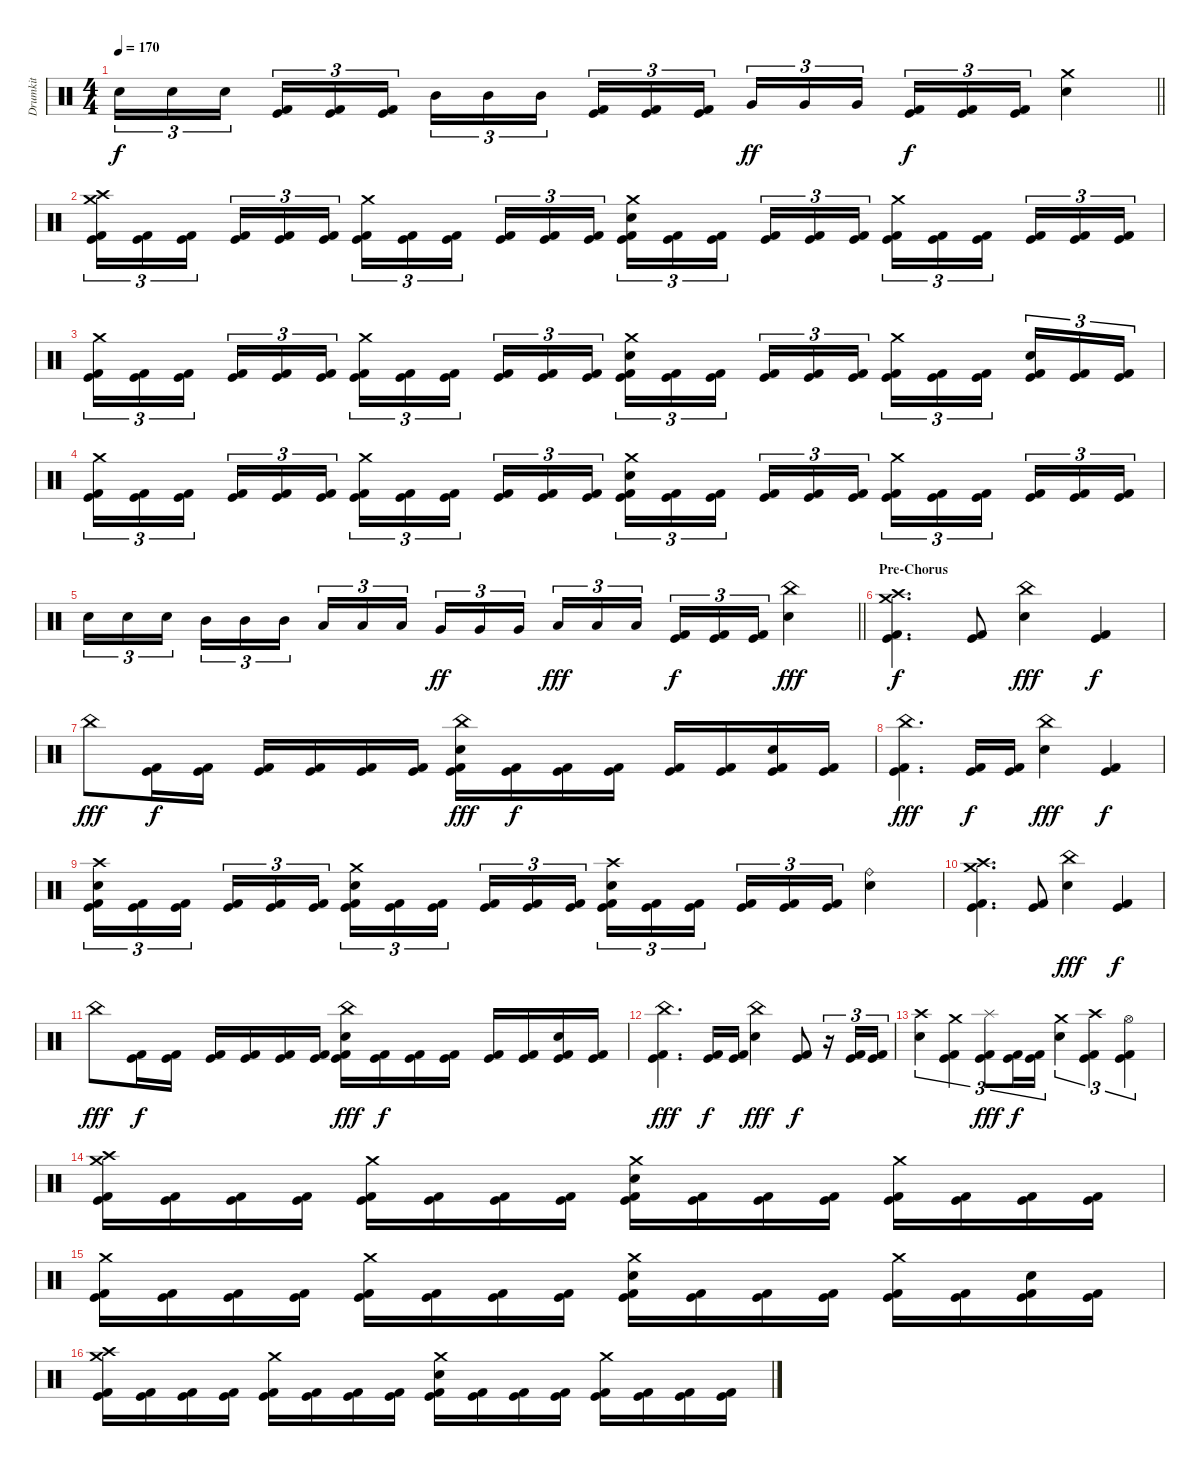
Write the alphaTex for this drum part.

\track ("Drumkit" "Drumkit") {instrument percussion}
\staff {score}
\articulation defaults
\ts (4 4)
\tempo 170
\clef neutral
\barLineRight lightlight
\ks c "Electric Snare (hit)".16{tu (3 2) dy f} "Electric Snare (hit)".16{tu (3 2)} "Electric Snare (hit)".16{tu (3 2) beam splitsecondary}
("Kick (hit)" "Kick (hit) 2").16{tu (3 2)} ("Kick (hit)" "Kick (hit) 2").16{tu (3 2)} ("Kick (hit)" "Kick (hit) 2").16{tu (3 2)} "Mid Tom (hit)".16{tu (3 2)} "Mid Tom (hit)".16{tu (3 2)} "Mid Tom (hit)".16{tu (3 2) beam splitsecondary} ("Kick (hit)" "Kick (hit) 2").16{tu (3 2)} ("Kick (hit)" "Kick (hit) 2").16{tu (3 2)} ("Kick (hit)" "Kick (hit) 2").16{tu (3 2)} "Very Low Tom (hit)".16{tu (3 2) dy ff} "Very Low Tom (hit)".16{tu (3 2)} "Very Low Tom (hit)".16{tu (3 2) beam splitsecondary} ("Kick (hit)" "Kick (hit) 2").16{tu (3 2) dy f} ("Kick (hit)" "Kick (hit) 2").16{tu (3 2)} ("Kick (hit)" "Kick (hit) 2").16{tu (3 2)} ("Crash medium (hit)" "Electric Snare (hit)").4 |
("Crash high (hit)" "Crash medium (hit)" "Kick (hit)" "Kick (hit) 2").16{tu (3 2)} ("Kick (hit)" "Kick (hit) 2").16{tu (3 2)} ("Kick (hit)" "Kick (hit) 2").16{tu (3 2) beam splitsecondary} ("Kick (hit)" "Kick (hit) 2").16{tu (3 2)} ("Kick (hit)" "Kick (hit) 2").16{tu (3 2)} ("Kick (hit)" "Kick (hit) 2").16{tu (3 2)} ("Crash medium (hit)" "Kick (hit)" "Kick (hit) 2").16{tu (3 2)} ("Kick (hit)" "Kick (hit) 2").16{tu (3 2)} ("Kick (hit)" "Kick (hit) 2").16{tu (3 2) beam splitsecondary} ("Kick (hit)" "Kick (hit) 2").16{tu (3 2)} ("Kick (hit)" "Kick (hit) 2").16{tu (3 2)} ("Kick (hit)" "Kick (hit) 2").16{tu (3 2)} ("Crash medium (hit)" "Electric Snare (hit)" "Kick (hit)" "Kick (hit) 2").16{tu (3 2)} ("Kick (hit)" "Kick (hit) 2").16{tu (3 2)} ("Kick (hit)" "Kick (hit) 2").16{tu (3 2) beam splitsecondary} ("Kick (hit)" "Kick (hit) 2").16{tu (3 2)} ("Kick (hit)" "Kick (hit) 2").16{tu (3 2)} ("Kick (hit)" "Kick (hit) 2").16{tu (3 2)} ("Crash medium (hit)" "Kick (hit)" "Kick (hit) 2").16{tu (3 2)} ("Kick (hit)" "Kick (hit) 2").16{tu (3 2)} ("Kick (hit)" "Kick (hit) 2").16{tu (3 2) beam splitsecondary} ("Kick (hit)" "Kick (hit) 2").16{tu (3 2)} ("Kick (hit)" "Kick (hit) 2").16{tu (3 2)} ("Kick (hit)" "Kick (hit) 2").16{tu (3 2)} |
("Crash medium (hit)" "Kick (hit)" "Kick (hit) 2").16{tu (3 2)} ("Kick (hit)" "Kick (hit) 2").16{tu (3 2)} ("Kick (hit)" "Kick (hit) 2").16{tu (3 2) beam splitsecondary} ("Kick (hit)" "Kick (hit) 2").16{tu (3 2)} ("Kick (hit)" "Kick (hit) 2").16{tu (3 2)} ("Kick (hit)" "Kick (hit) 2").16{tu (3 2)} ("Crash medium (hit)" "Kick (hit)" "Kick (hit) 2").16{tu (3 2)} ("Kick (hit)" "Kick (hit) 2").16{tu (3 2)} ("Kick (hit)" "Kick (hit) 2").16{tu (3 2) beam splitsecondary} ("Kick (hit)" "Kick (hit) 2").16{tu (3 2)} ("Kick (hit)" "Kick (hit) 2").16{tu (3 2)} ("Kick (hit)" "Kick (hit) 2").16{tu (3 2)} ("Crash medium (hit)" "Electric Snare (hit)" "Kick (hit)" "Kick (hit) 2").16{tu (3 2)} ("Kick (hit)" "Kick (hit) 2").16{tu (3 2)} ("Kick (hit)" "Kick (hit) 2").16{tu (3 2) beam splitsecondary} ("Kick (hit)" "Kick (hit) 2").16{tu (3 2)} ("Kick (hit)" "Kick (hit) 2").16{tu (3 2)} ("Kick (hit)" "Kick (hit) 2").16{tu (3 2)} ("Crash medium (hit)" "Kick (hit)" "Kick (hit) 2").16{tu (3 2)} ("Kick (hit)" "Kick (hit) 2").16{tu (3 2)} ("Kick (hit)" "Kick (hit) 2").16{tu (3 2) beam splitsecondary} ("Electric Snare (hit)" "Kick (hit)" "Kick (hit) 2").16{tu (3 2)} ("Kick (hit)" "Kick (hit) 2").16{tu (3 2)} ("Kick (hit)" "Kick (hit) 2").16{tu (3 2)} |
("Crash medium (hit)" "Kick (hit)" "Kick (hit) 2").16{tu (3 2)} ("Kick (hit)" "Kick (hit) 2").16{tu (3 2)} ("Kick (hit)" "Kick (hit) 2").16{tu (3 2) beam splitsecondary} ("Kick (hit)" "Kick (hit) 2").16{tu (3 2)} ("Kick (hit)" "Kick (hit) 2").16{tu (3 2)} ("Kick (hit)" "Kick (hit) 2").16{tu (3 2)} ("Crash medium (hit)" "Kick (hit)" "Kick (hit) 2").16{tu (3 2)} ("Kick (hit)" "Kick (hit) 2").16{tu (3 2)} ("Kick (hit)" "Kick (hit) 2").16{tu (3 2) beam splitsecondary} ("Kick (hit)" "Kick (hit) 2").16{tu (3 2)} ("Kick (hit)" "Kick (hit) 2").16{tu (3 2)} ("Kick (hit)" "Kick (hit) 2").16{tu (3 2)} ("Crash medium (hit)" "Electric Snare (hit)" "Kick (hit)" "Kick (hit) 2").16{tu (3 2)} ("Kick (hit)" "Kick (hit) 2").16{tu (3 2)} ("Kick (hit)" "Kick (hit) 2").16{tu (3 2) beam splitsecondary} ("Kick (hit)" "Kick (hit) 2").16{tu (3 2)} ("Kick (hit)" "Kick (hit) 2").16{tu (3 2)} ("Kick (hit)" "Kick (hit) 2").16{tu (3 2)} ("Crash medium (hit)" "Kick (hit)" "Kick (hit) 2").16{tu (3 2)} ("Kick (hit)" "Kick (hit) 2").16{tu (3 2)} ("Kick (hit)" "Kick (hit) 2").16{tu (3 2) beam splitsecondary} ("Kick (hit)" "Kick (hit) 2").16{tu (3 2)} ("Kick (hit)" "Kick (hit) 2").16{tu (3 2)} ("Kick (hit)" "Kick (hit) 2").16{tu (3 2)} |
\barLineRight lightlight "Electric Snare (hit)".16{tu (3 2)} "Electric Snare (hit)".16{tu (3 2)} "Electric Snare (hit)".16{tu (3 2) beam splitsecondary} "Mid Tom (hit)".16{tu (3 2)} "Mid Tom (hit)".16{tu (3 2)} "Mid Tom (hit)".16{tu (3 2)} "Low Tom (hit)".16{tu (3 2)} "Low Tom (hit)".16{tu (3 2)} "Low Tom (hit)".16{tu (3 2) beam splitsecondary} "Very Low Tom (hit)".16{tu (3 2) dy ff} "Very Low Tom (hit)".16{tu (3 2)} "Very Low Tom (hit)".16{tu (3 2)} "Low Floor Tom (hit)".16{tu (3 2) dy fff} "Low Floor Tom (hit)".16{tu (3 2)} "Low Floor Tom (hit)".16{tu (3 2) beam splitsecondary}
("Kick (hit)" "Kick (hit) 2").16{tu (3 2) dy f} ("Kick (hit)" "Kick (hit) 2").16{tu (3 2)} ("Kick (hit)" "Kick (hit) 2").16{tu (3 2)} ("China (hit)" "Electric Snare (hit)").4{dy fff} |
\section ("" "Pre-Chorus")
("Crash high (hit)" "Crash medium (hit)" "Kick (hit)" "Kick (hit) 2").4{d dy f} ("Kick (hit)" "Kick (hit) 2").8 ("China (hit)" "Electric Snare (hit)").4{dy fff} ("Kick (hit)" "Kick (hit) 2").4{dy f} |
"China (hit)".8{dy fff} ("Kick (hit)" "Kick (hit) 2").16{dy f} ("Kick (hit)" "Kick (hit) 2").16 ("Kick (hit)" "Kick (hit) 2").16 ("Kick (hit)" "Kick (hit) 2").16 ("Kick (hit)" "Kick (hit) 2").16 ("Kick (hit)" "Kick (hit) 2").16 ("China (hit)" "Electric Snare (hit)" "Kick (hit)" "Kick (hit) 2").16{dy fff} ("Kick (hit)" "Kick (hit) 2").16{dy f} ("Kick (hit)" "Kick (hit) 2").16 ("Kick (hit)" "Kick (hit) 2").16 ("Kick (hit)" "Kick (hit) 2").16 ("Kick (hit)" "Kick (hit) 2").16 ("Electric Snare (hit)" "Kick (hit)" "Kick (hit) 2").16 ("Kick (hit)" "Kick (hit) 2").16 |
("China (hit)" "Kick (hit)" "Kick (hit) 2").4{d dy fff} ("Kick (hit)" "Kick (hit) 2").16{dy f} ("Kick (hit)" "Kick (hit) 2").16 ("China (hit)" "Electric Snare (hit)").4{dy fff} ("Kick (hit)" "Kick (hit) 2").4{dy f} |
("Crash high (hit)" "Electric Snare (hit)" "Kick (hit)" "Kick (hit) 2").16{tu (3 2)} ("Kick (hit)" "Kick (hit) 2").16{tu (3 2)} ("Kick (hit)" "Kick (hit) 2").16{tu (3 2) beam splitsecondary} ("Kick (hit)" "Kick (hit) 2").16{tu (3 2)} ("Kick (hit)" "Kick (hit) 2").16{tu (3 2)} ("Kick (hit)" "Kick (hit) 2").16{tu (3 2)} ("Crash medium (hit)" "Electric Snare (hit)" "Kick (hit)" "Kick (hit) 2").16{tu (3 2)} ("Kick (hit)" "Kick (hit) 2").16{tu (3 2)} ("Kick (hit)" "Kick (hit) 2").16{tu (3 2) beam splitsecondary} ("Kick (hit)" "Kick (hit) 2").16{tu (3 2)} ("Kick (hit)" "Kick (hit) 2").16{tu (3 2)} ("Kick (hit)" "Kick (hit) 2").16{tu (3 2)} ("Crash high (hit)" "Electric Snare (hit)" "Kick (hit)" "Kick (hit) 2").16{tu (3 2)} ("Kick (hit)" "Kick (hit) 2").16{tu (3 2)} ("Kick (hit)" "Kick (hit) 2").16{tu (3 2) beam splitsecondary} ("Kick (hit)" "Kick (hit) 2").16{tu (3 2)} ("Kick (hit)" "Kick (hit) 2").16{tu (3 2)} ("Kick (hit)" "Kick (hit) 2").16{tu (3 2)} ("Ride (bell)" "Electric Snare (hit)").4 |
("Crash high (hit)" "Crash medium (hit)" "Kick (hit)" "Kick (hit) 2").4{d} ("Kick (hit)" "Kick (hit) 2").8 ("China (hit)" "Electric Snare (hit)").4{dy fff} ("Kick (hit)" "Kick (hit) 2").4{dy f} |
"China (hit)".8{dy fff} ("Kick (hit)" "Kick (hit) 2").16{dy f} ("Kick (hit)" "Kick (hit) 2").16 ("Kick (hit)" "Kick (hit) 2").16 ("Kick (hit)" "Kick (hit) 2").16 ("Kick (hit)" "Kick (hit) 2").16 ("Kick (hit)" "Kick (hit) 2").16 ("China (hit)" "Electric Snare (hit)" "Kick (hit)" "Kick (hit) 2").16{dy fff} ("Kick (hit)" "Kick (hit) 2").16{dy f} ("Kick (hit)" "Kick (hit) 2").16 ("Kick (hit)" "Kick (hit) 2").16 ("Kick (hit)" "Kick (hit) 2").16 ("Kick (hit)" "Kick (hit) 2").16 ("Electric Snare (hit)" "Kick (hit)" "Kick (hit) 2").16 ("Kick (hit)" "Kick (hit) 2").16 |
("China (hit)" "Kick (hit)" "Kick (hit) 2").4{d dy fff} ("Kick (hit)" "Kick (hit) 2").16{dy f} ("Kick (hit)" "Kick (hit) 2").16 ("China (hit)" "Electric Snare (hit)").4{dy fff} ("Kick (hit)" "Kick (hit) 2").8{dy f} r.16{tu (3 2)} ("Kick (hit)" "Kick (hit) 2").16{tu (3 2)} ("Kick (hit)" "Kick (hit) 2").16{tu (3 2)} |
("Crash high (hit)" "Electric Snare (hit)").4{tu (3 2)} ("Crash medium (hit)" "Kick (hit)" "Kick (hit) 2").4{tu (3 2)} ("Splash (hit)" "Kick (hit)" "Kick (hit) 2").8{tu (3 2) dy fff} ("Kick (hit)" "Kick (hit) 2").16{tu (3 2) dy f} ("Kick (hit)" "Kick (hit) 2").16{tu (3 2)} ("Crash medium (hit)" "Electric Snare (hit)").4{tu (3 2)} ("Crash high (hit)" "Kick (hit)" "Kick (hit) 2").4{tu (3 2)} ("Hi-Hat (open)" "Kick (hit)" "Kick (hit) 2").4{tu (3 2)} |
("Crash high (hit)" "Crash medium (hit)" "Kick (hit)" "Kick (hit) 2").16 ("Kick (hit)" "Kick (hit) 2").16 ("Kick (hit)" "Kick (hit) 2").16 ("Kick (hit)" "Kick (hit) 2").16 ("Crash medium (hit)" "Kick (hit)" "Kick (hit) 2").16 ("Kick (hit)" "Kick (hit) 2").16 ("Kick (hit)" "Kick (hit) 2").16 ("Kick (hit)" "Kick (hit) 2").16 ("Crash medium (hit)" "Electric Snare (hit)" "Kick (hit)" "Kick (hit) 2").16 ("Kick (hit)" "Kick (hit) 2").16 ("Kick (hit)" "Kick (hit) 2").16 ("Kick (hit)" "Kick (hit) 2").16 ("Crash medium (hit)" "Kick (hit)" "Kick (hit) 2").16 ("Kick (hit)" "Kick (hit) 2").16 ("Kick (hit)" "Kick (hit) 2").16 ("Kick (hit)" "Kick (hit) 2").16 |
("Crash medium (hit)" "Kick (hit)" "Kick (hit) 2").16 ("Kick (hit)" "Kick (hit) 2").16 ("Kick (hit)" "Kick (hit) 2").16 ("Kick (hit)" "Kick (hit) 2").16 ("Crash medium (hit)" "Kick (hit)" "Kick (hit) 2").16 ("Kick (hit)" "Kick (hit) 2").16 ("Kick (hit)" "Kick (hit) 2").16 ("Kick (hit)" "Kick (hit) 2").16 ("Crash medium (hit)" "Electric Snare (hit)" "Kick (hit)" "Kick (hit) 2").16 ("Kick (hit)" "Kick (hit) 2").16 ("Kick (hit)" "Kick (hit) 2").16 ("Kick (hit)" "Kick (hit) 2").16 ("Crash medium (hit)" "Kick (hit)" "Kick (hit) 2").16 ("Kick (hit)" "Kick (hit) 2").16 ("Electric Snare (hit)" "Kick (hit)" "Kick (hit) 2").16 ("Kick (hit)" "Kick (hit) 2").16 |
("Crash high (hit)" "Crash medium (hit)" "Kick (hit)" "Kick (hit) 2").16 ("Kick (hit)" "Kick (hit) 2").16 ("Kick (hit)" "Kick (hit) 2").16 ("Kick (hit)" "Kick (hit) 2").16 ("Crash medium (hit)" "Kick (hit)" "Kick (hit) 2").16 ("Kick (hit)" "Kick (hit) 2").16 ("Kick (hit)" "Kick (hit) 2").16 ("Kick (hit)" "Kick (hit) 2").16 ("Crash medium (hit)" "Electric Snare (hit)" "Kick (hit)" "Kick (hit) 2").16 ("Kick (hit)" "Kick (hit) 2").16 ("Kick (hit)" "Kick (hit) 2").16 ("Kick (hit)" "Kick (hit) 2").16 ("Crash medium (hit)" "Kick (hit)" "Kick (hit) 2").16 ("Kick (hit)" "Kick (hit) 2").16 ("Kick (hit)" "Kick (hit) 2").16 ("Kick (hit)" "Kick (hit) 2").16
